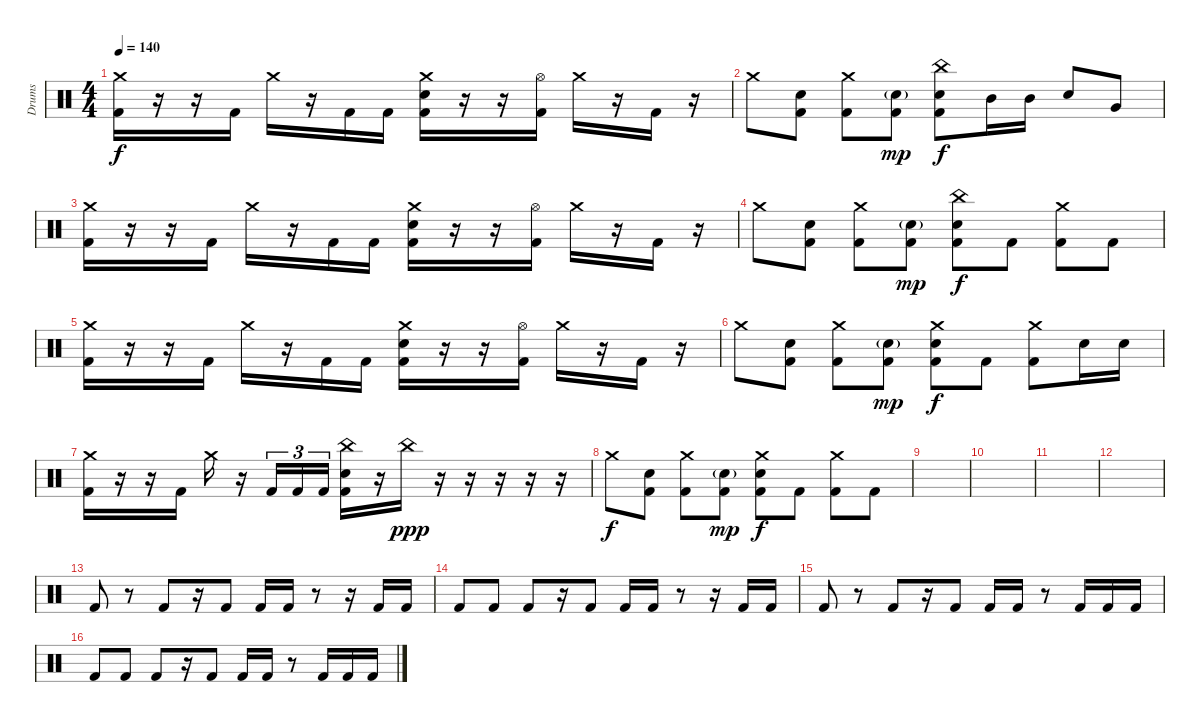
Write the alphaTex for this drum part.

\track ("Drums" "Drums") {instrument percussion}
\staff {score}
\articulation defaults
\ts (4 4)
\tempo 140
\clef neutral
\ks c
("Crash medium (hit)" "Kick (hit) 2").16{dy f} r.16 r.16 "Kick (hit) 2".16 "Crash medium (hit)".16 r.16 "Kick (hit) 2".16 "Kick (hit) 2".16 ("Crash medium (hit)" "Electric Snare (hit)" "Kick (hit) 2").16 r.16 r.16 ("Hi-Hat (open)" "Kick (hit) 2").16 "Crash medium (hit)".16 r.16 "Kick (hit) 2".16 r.16 |
"Crash medium (hit)".8 ("Electric Snare (hit)" "Kick (hit) 2").8 ("Crash medium (hit)" "Kick (hit) 2").8 ("Electric Snare (hit)"{g} "Kick (hit) 2").8{dy mp} ("China (hit)" "Electric Snare (hit)" "Kick (hit) 2").8{dy f} "Mid Tom (hit)".16 "Mid Tom (hit)".16 "Electric Snare (hit)".8 "Very Low Tom (hit)".8 |
("Crash medium (hit)" "Kick (hit) 2").16 r.16 r.16 "Kick (hit) 2".16 "Crash medium (hit)".16 r.16 "Kick (hit) 2".16 "Kick (hit) 2".16 ("Crash medium (hit)" "Electric Snare (hit)" "Kick (hit) 2").16 r.16 r.16 ("Hi-Hat (open)" "Kick (hit) 2").16 "Crash medium (hit)".16 r.16 "Kick (hit) 2".16 r.16 |
"Crash medium (hit)".8 ("Electric Snare (hit)" "Kick (hit) 2").8 ("Crash medium (hit)" "Kick (hit) 2").8 ("Electric Snare (hit)"{g} "Kick (hit) 2").8{dy mp} ("China (hit)" "Electric Snare (hit)" "Kick (hit) 2").8{dy f} "Kick (hit) 2".8 ("Crash medium (hit)" "Kick (hit) 2").8 "Kick (hit) 2".8 |
("Crash medium (hit)" "Kick (hit) 2").16 r.16 r.16 "Kick (hit) 2".16 "Crash medium (hit)".16 r.16 "Kick (hit) 2".16 "Kick (hit) 2".16 ("Crash medium (hit)" "Electric Snare (hit)" "Kick (hit) 2").16 r.16 r.16 ("Hi-Hat (open)" "Kick (hit) 2").16 "Crash medium (hit)".16 r.16 "Kick (hit) 2".16 r.16 |
"Crash medium (hit)".8 ("Electric Snare (hit)" "Kick (hit) 2").8 ("Crash medium (hit)" "Kick (hit) 2").8 ("Electric Snare (hit)"{g} "Kick (hit) 2").8{dy mp} ("Crash medium (hit)" "Electric Snare (hit)" "Kick (hit) 2").8{dy f} "Kick (hit) 2".8 ("Crash medium (hit)" "Kick (hit) 2").8 "Electric Snare (hit)".16 "Electric Snare (hit)".16 |
("Crash medium (hit)" "Kick (hit) 2").16 r.16 r.16 "Kick (hit) 2".16 "Crash medium (hit)".16 r.16 "Kick (hit) 2".16{tu (3 2)} "Kick (hit) 2".16{tu (3 2)} "Kick (hit) 2".16{tu (3 2)} ("China (hit)" "Electric Snare (hit)" "Kick (hit) 2").16 r.16 "China (hit)".16{dy ppp} r.16 r.16 r.16 r.16 r.16 |
"Crash medium (hit)".8{dy f} ("Electric Snare (hit)" "Kick (hit) 2").8 ("Crash medium (hit)" "Kick (hit) 2").8 ("Electric Snare (hit)"{g} "Kick (hit) 2").8{dy mp} ("Crash medium (hit)" "Electric Snare (hit)" "Kick (hit) 2").8{dy f} "Kick (hit) 2".8 ("Crash medium (hit)" "Kick (hit) 2").8 "Kick (hit) 2".8 |
|
|
|
|
"Kick (hit) 2".8 r.8 "Kick (hit) 2".8 r.16 "Kick (hit) 2".8 "Kick (hit) 2".16 "Kick (hit) 2".16 r.8 r.16 "Kick (hit) 2".16 "Kick (hit) 2".16 |
"Kick (hit) 2".8 "Kick (hit) 2".8 "Kick (hit) 2".8 r.16 "Kick (hit) 2".8 "Kick (hit) 2".16 "Kick (hit) 2".16 r.8 r.16 "Kick (hit) 2".16 "Kick (hit) 2".16 |
"Kick (hit) 2".8 r.8 "Kick (hit) 2".8 r.16 "Kick (hit) 2".8 "Kick (hit) 2".16 "Kick (hit) 2".16 r.8 "Kick (hit) 2".16 "Kick (hit) 2".16 "Kick (hit) 2".16 |
"Kick (hit) 2".8 "Kick (hit) 2".8 "Kick (hit) 2".8 r.16 "Kick (hit) 2".8 "Kick (hit) 2".16 "Kick (hit) 2".16 r.8 "Kick (hit) 2".16 "Kick (hit) 2".16 "Kick (hit) 2".16
